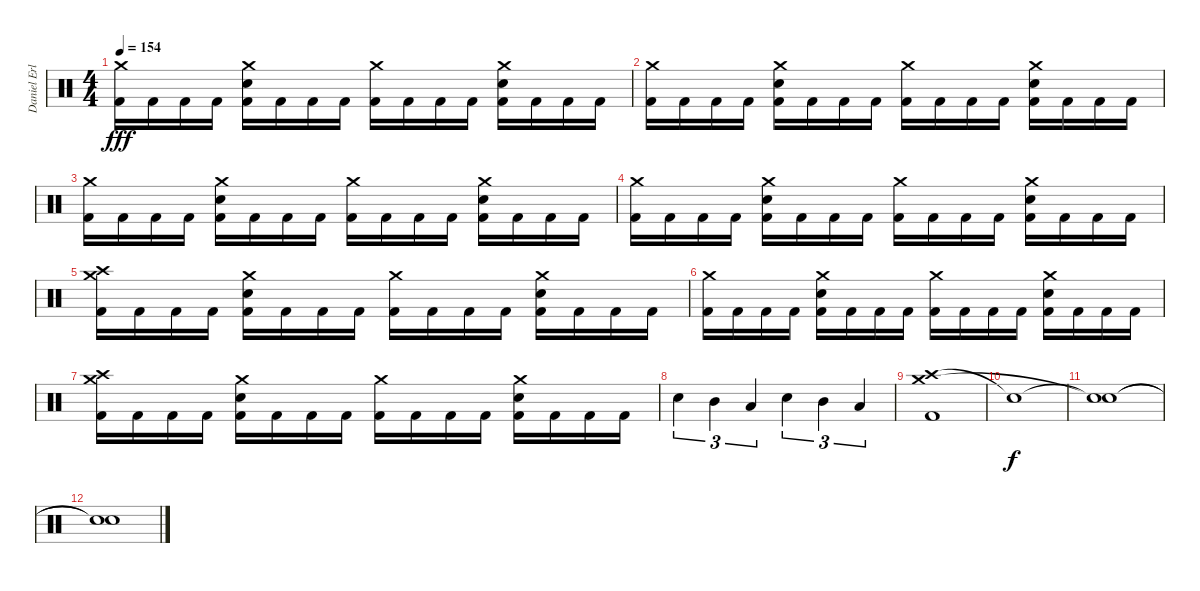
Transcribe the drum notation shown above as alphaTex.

\track ("Daniel Erlandsson" "Daniel Erl") {instrument percussion}
\staff {score}
\articulation defaults
\ts (4 4)
\tempo 154
\clef neutral
\ks c
("Crash medium (hit)" "Kick (hit) 2").16{dy fff} "Kick (hit) 2".16 "Kick (hit) 2".16 "Kick (hit) 2".16 ("Crash medium (hit)" "Electric Snare (hit)" "Kick (hit) 2").16 "Kick (hit) 2".16 "Kick (hit) 2".16 "Kick (hit) 2".16 ("Crash medium (hit)" "Kick (hit) 2").16 "Kick (hit) 2".16 "Kick (hit) 2".16 "Kick (hit) 2".16 ("Crash medium (hit)" "Electric Snare (hit)" "Kick (hit) 2").16 "Kick (hit) 2".16 "Kick (hit) 2".16 "Kick (hit) 2".16 |
("Crash medium (hit)" "Kick (hit) 2").16 "Kick (hit) 2".16 "Kick (hit) 2".16 "Kick (hit) 2".16 ("Crash medium (hit)" "Electric Snare (hit)" "Kick (hit) 2").16 "Kick (hit) 2".16 "Kick (hit) 2".16 "Kick (hit) 2".16 ("Crash medium (hit)" "Kick (hit) 2").16 "Kick (hit) 2".16 "Kick (hit) 2".16 "Kick (hit) 2".16 ("Crash medium (hit)" "Electric Snare (hit)" "Kick (hit) 2").16 "Kick (hit) 2".16 "Kick (hit) 2".16 "Kick (hit) 2".16 |
("Crash medium (hit)" "Kick (hit) 2").16 "Kick (hit) 2".16 "Kick (hit) 2".16 "Kick (hit) 2".16 ("Crash medium (hit)" "Electric Snare (hit)" "Kick (hit) 2").16 "Kick (hit) 2".16 "Kick (hit) 2".16 "Kick (hit) 2".16 ("Crash medium (hit)" "Kick (hit) 2").16 "Kick (hit) 2".16 "Kick (hit) 2".16 "Kick (hit) 2".16 ("Crash medium (hit)" "Electric Snare (hit)" "Kick (hit) 2").16 "Kick (hit) 2".16 "Kick (hit) 2".16 "Kick (hit) 2".16 |
("Crash medium (hit)" "Kick (hit) 2").16 "Kick (hit) 2".16 "Kick (hit) 2".16 "Kick (hit) 2".16 ("Crash medium (hit)" "Electric Snare (hit)" "Kick (hit) 2").16 "Kick (hit) 2".16 "Kick (hit) 2".16 "Kick (hit) 2".16 ("Crash medium (hit)" "Kick (hit) 2").16 "Kick (hit) 2".16 "Kick (hit) 2".16 "Kick (hit) 2".16 ("Crash medium (hit)" "Electric Snare (hit)" "Kick (hit) 2").16 "Kick (hit) 2".16 "Kick (hit) 2".16 "Kick (hit) 2".16 |
("Crash medium (hit)" "Crash high (hit)" "Kick (hit) 2").16 "Kick (hit) 2".16 "Kick (hit) 2".16 "Kick (hit) 2".16 ("Crash medium (hit)" "Electric Snare (hit)" "Kick (hit) 2").16 "Kick (hit) 2".16 "Kick (hit) 2".16 "Kick (hit) 2".16 ("Crash medium (hit)" "Kick (hit) 2").16 "Kick (hit) 2".16 "Kick (hit) 2".16 "Kick (hit) 2".16 ("Crash medium (hit)" "Electric Snare (hit)" "Kick (hit) 2").16 "Kick (hit) 2".16 "Kick (hit) 2".16 "Kick (hit) 2".16 |
("Crash medium (hit)" "Kick (hit) 2").16 "Kick (hit) 2".16 "Kick (hit) 2".16 "Kick (hit) 2".16 ("Crash medium (hit)" "Electric Snare (hit)" "Kick (hit) 2").16 "Kick (hit) 2".16 "Kick (hit) 2".16 "Kick (hit) 2".16 ("Crash medium (hit)" "Kick (hit) 2").16 "Kick (hit) 2".16 "Kick (hit) 2".16 "Kick (hit) 2".16 ("Crash medium (hit)" "Electric Snare (hit)" "Kick (hit) 2").16 "Kick (hit) 2".16 "Kick (hit) 2".16 "Kick (hit) 2".16 |
("Crash medium (hit)" "Crash high (hit)" "Kick (hit) 2").16 "Kick (hit) 2".16 "Kick (hit) 2".16 "Kick (hit) 2".16 ("Crash medium (hit)" "Electric Snare (hit)" "Kick (hit) 2").16 "Kick (hit) 2".16 "Kick (hit) 2".16 "Kick (hit) 2".16 ("Crash medium (hit)" "Kick (hit) 2").16 "Kick (hit) 2".16 "Kick (hit) 2".16 "Kick (hit) 2".16 ("Crash medium (hit)" "Electric Snare (hit)" "Kick (hit) 2").16 "Kick (hit) 2".16 "Kick (hit) 2".16 "Kick (hit) 2".16 |
"Electric Snare (hit)".4{tu (3 2)} "Mid Tom (hit)".4{tu (3 2)} "Low Tom (hit)".4{tu (3 2)} "Electric Snare (hit)".4{tu (3 2)} "Mid Tom (hit)".4{tu (3 2)} "Low Tom (hit)".4{tu (3 2)} |
("Crash high (hit)" "Crash medium (hit)" "Kick (hit) 2").1 |
"Snare (hit)"{t}.1{dy f} |
("Snare (hit)"{t} "Snare (hit)"{t}).1 |
("Snare (hit)"{t} "Snare (hit)"{t}).1
